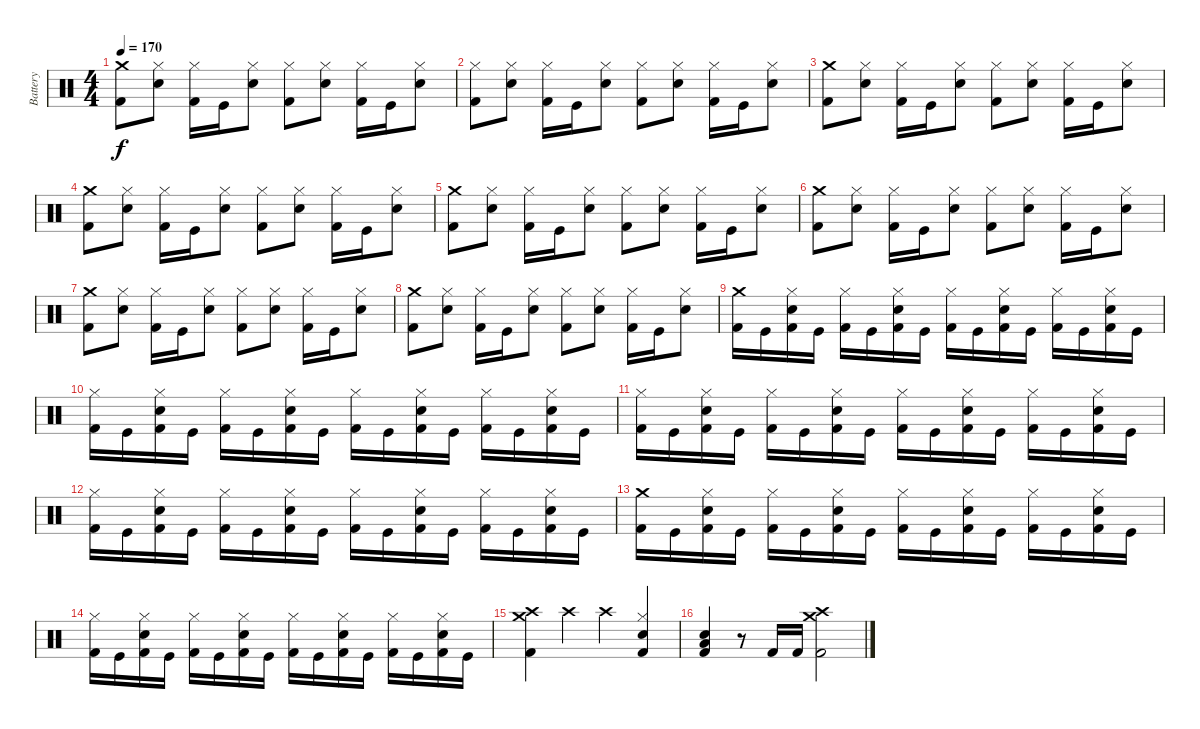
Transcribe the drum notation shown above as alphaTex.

\track ("Battery" "Battery") {instrument percussion}
\staff {score}
\articulation defaults
\ts (4 4)
\tempo 170
\clef neutral
\ks c
("Crash medium (hit)" "Kick (hit) 2").8{dy f} ("Hi-Hat (closed)" "Snare (hit) 2").8 ("Hi-Hat (closed)" "Kick (hit) 2").16 "Kick (hit)".16 ("Hi-Hat (closed)" "Snare (hit) 2").8 ("Hi-Hat (closed)" "Kick (hit) 2").8 ("Hi-Hat (closed)" "Snare (hit) 2").8 ("Hi-Hat (closed)" "Kick (hit) 2").16 "Kick (hit)".16 ("Hi-Hat (closed)" "Snare (hit) 2").8 |
("Hi-Hat (closed)" "Kick (hit) 2").8 ("Hi-Hat (closed)" "Snare (hit) 2").8 ("Hi-Hat (closed)" "Kick (hit) 2").16 "Kick (hit)".16 ("Hi-Hat (closed)" "Snare (hit) 2").8 ("Hi-Hat (closed)" "Kick (hit) 2").8 ("Hi-Hat (closed)" "Snare (hit) 2").8 ("Hi-Hat (closed)" "Kick (hit) 2").16 "Kick (hit)".16 ("Hi-Hat (closed)" "Snare (hit) 2").8 |
("Crash medium (hit)" "Kick (hit) 2").8 ("Hi-Hat (closed)" "Snare (hit) 2").8 ("Hi-Hat (closed)" "Kick (hit) 2").16 "Kick (hit)".16 ("Hi-Hat (closed)" "Snare (hit) 2").8 ("Hi-Hat (closed)" "Kick (hit) 2").8 ("Hi-Hat (closed)" "Snare (hit) 2").8 ("Hi-Hat (closed)" "Kick (hit) 2").16 "Kick (hit)".16 ("Hi-Hat (closed)" "Snare (hit) 2").8 |
("Crash medium (hit)" "Kick (hit) 2").8 ("Hi-Hat (closed)" "Snare (hit) 2").8 ("Hi-Hat (closed)" "Kick (hit) 2").16 "Kick (hit)".16 ("Hi-Hat (closed)" "Snare (hit) 2").8 ("Hi-Hat (closed)" "Kick (hit) 2").8 ("Hi-Hat (closed)" "Snare (hit) 2").8 ("Hi-Hat (closed)" "Kick (hit) 2").16 "Kick (hit)".16 ("Hi-Hat (closed)" "Snare (hit) 2").8 |
("Crash medium (hit)" "Kick (hit) 2").8 ("Hi-Hat (closed)" "Snare (hit) 2").8 ("Hi-Hat (closed)" "Kick (hit) 2").16 "Kick (hit)".16 ("Hi-Hat (closed)" "Snare (hit) 2").8 ("Hi-Hat (closed)" "Kick (hit) 2").8 ("Hi-Hat (closed)" "Snare (hit) 2").8 ("Hi-Hat (closed)" "Kick (hit) 2").16 "Kick (hit)".16 ("Hi-Hat (closed)" "Snare (hit) 2").8 |
("Crash medium (hit)" "Kick (hit) 2").8 ("Hi-Hat (closed)" "Snare (hit) 2").8 ("Hi-Hat (closed)" "Kick (hit) 2").16 "Kick (hit)".16 ("Hi-Hat (closed)" "Snare (hit) 2").8 ("Hi-Hat (closed)" "Kick (hit) 2").8 ("Hi-Hat (closed)" "Snare (hit) 2").8 ("Hi-Hat (closed)" "Kick (hit) 2").16 "Kick (hit)".16 ("Hi-Hat (closed)" "Snare (hit) 2").8 |
("Crash medium (hit)" "Kick (hit) 2").8 ("Hi-Hat (closed)" "Snare (hit) 2").8 ("Hi-Hat (closed)" "Kick (hit) 2").16 "Kick (hit)".16 ("Hi-Hat (closed)" "Snare (hit) 2").8 ("Hi-Hat (closed)" "Kick (hit) 2").8 ("Hi-Hat (closed)" "Snare (hit) 2").8 ("Hi-Hat (closed)" "Kick (hit) 2").16 "Kick (hit)".16 ("Hi-Hat (closed)" "Snare (hit) 2").8 |
("Crash medium (hit)" "Kick (hit) 2").8 ("Hi-Hat (closed)" "Snare (hit) 2").8 ("Hi-Hat (closed)" "Kick (hit) 2").16 "Kick (hit)".16 ("Hi-Hat (closed)" "Snare (hit) 2").8 ("Hi-Hat (closed)" "Kick (hit) 2").8 ("Hi-Hat (closed)" "Snare (hit) 2").8 ("Hi-Hat (closed)" "Kick (hit) 2").16 "Kick (hit)".16 ("Hi-Hat (closed)" "Snare (hit) 2").8 |
("Crash medium (hit)" "Kick (hit) 2").16 "Kick (hit)".16 ("Hi-Hat (closed)" "Snare (hit) 2" "Kick (hit) 2").16 "Kick (hit)".16 ("Hi-Hat (closed)" "Kick (hit) 2").16 "Kick (hit)".16 ("Hi-Hat (closed)" "Snare (hit) 2" "Kick (hit) 2").16 "Kick (hit)".16 ("Hi-Hat (closed)" "Kick (hit) 2").16 "Kick (hit)".16 ("Hi-Hat (closed)" "Snare (hit) 2" "Kick (hit) 2").16 "Kick (hit)".16 ("Hi-Hat (closed)" "Kick (hit) 2").16 "Kick (hit)".16 ("Hi-Hat (closed)" "Snare (hit) 2" "Kick (hit) 2").16 "Kick (hit)".16 |
("Hi-Hat (closed)" "Kick (hit) 2").16 "Kick (hit)".16 ("Hi-Hat (closed)" "Snare (hit) 2" "Kick (hit) 2").16 "Kick (hit)".16 ("Hi-Hat (closed)" "Kick (hit) 2").16 "Kick (hit)".16 ("Hi-Hat (closed)" "Snare (hit) 2" "Kick (hit) 2").16 "Kick (hit)".16 ("Hi-Hat (closed)" "Kick (hit) 2").16 "Kick (hit)".16 ("Hi-Hat (closed)" "Snare (hit) 2" "Kick (hit) 2").16 "Kick (hit)".16 ("Hi-Hat (closed)" "Kick (hit) 2").16 "Kick (hit)".16 ("Hi-Hat (closed)" "Snare (hit) 2" "Kick (hit) 2").16 "Kick (hit)".16 |
("Hi-Hat (closed)" "Kick (hit) 2").16 "Kick (hit)".16 ("Hi-Hat (closed)" "Snare (hit) 2" "Kick (hit) 2").16 "Kick (hit)".16 ("Hi-Hat (closed)" "Kick (hit) 2").16 "Kick (hit)".16 ("Hi-Hat (closed)" "Snare (hit) 2" "Kick (hit) 2").16 "Kick (hit)".16 ("Hi-Hat (closed)" "Kick (hit) 2").16 "Kick (hit)".16 ("Hi-Hat (closed)" "Snare (hit) 2" "Kick (hit) 2").16 "Kick (hit)".16 ("Hi-Hat (closed)" "Kick (hit) 2").16 "Kick (hit)".16 ("Hi-Hat (closed)" "Snare (hit) 2" "Kick (hit) 2").16 "Kick (hit)".16 |
("Hi-Hat (closed)" "Kick (hit) 2").16 "Kick (hit)".16 ("Hi-Hat (closed)" "Snare (hit) 2" "Kick (hit) 2").16 "Kick (hit)".16 ("Hi-Hat (closed)" "Kick (hit) 2").16 "Kick (hit)".16 ("Hi-Hat (closed)" "Snare (hit) 2" "Kick (hit) 2").16 "Kick (hit)".16 ("Hi-Hat (closed)" "Kick (hit) 2").16 "Kick (hit)".16 ("Hi-Hat (closed)" "Snare (hit) 2" "Kick (hit) 2").16 "Kick (hit)".16 ("Hi-Hat (closed)" "Kick (hit) 2").16 "Kick (hit)".16 ("Hi-Hat (closed)" "Snare (hit) 2" "Kick (hit) 2").16 "Kick (hit)".16 |
("Crash medium (hit)" "Kick (hit) 2").16 "Kick (hit)".16 ("Hi-Hat (closed)" "Snare (hit) 2" "Kick (hit) 2").16 "Kick (hit)".16 ("Hi-Hat (closed)" "Kick (hit) 2").16 "Kick (hit)".16 ("Hi-Hat (closed)" "Snare (hit) 2" "Kick (hit) 2").16 "Kick (hit)".16 ("Hi-Hat (closed)" "Kick (hit) 2").16 "Kick (hit)".16 ("Hi-Hat (closed)" "Snare (hit) 2" "Kick (hit) 2").16 "Kick (hit)".16 ("Hi-Hat (closed)" "Kick (hit) 2").16 "Kick (hit)".16 ("Hi-Hat (closed)" "Snare (hit) 2" "Kick (hit) 2").16 "Kick (hit)".16 |
("Hi-Hat (closed)" "Kick (hit) 2").16 "Kick (hit)".16 ("Hi-Hat (closed)" "Snare (hit) 2" "Kick (hit) 2").16 "Kick (hit)".16 ("Hi-Hat (closed)" "Kick (hit) 2").16 "Kick (hit)".16 ("Hi-Hat (closed)" "Snare (hit) 2" "Kick (hit) 2").16 "Kick (hit)".16 ("Hi-Hat (closed)" "Kick (hit) 2").16 "Kick (hit)".16 ("Hi-Hat (closed)" "Snare (hit) 2" "Kick (hit) 2").16 "Kick (hit)".16 ("Hi-Hat (closed)" "Kick (hit) 2").16 "Kick (hit)".16 ("Hi-Hat (closed)" "Snare (hit) 2" "Kick (hit) 2").16 "Kick (hit)".16 |
("Crash high (hit)" "Crash medium (hit)" "Kick (hit) 2").4 "Crash high (hit)".4 "Crash high (hit)".4 ("Hi-Hat (closed)" "Snare (hit) 2" "Kick (hit) 2").4 |
("Low Floor Tom (hit)" "Snare (hit) 2" "Kick (hit) 2").4 r.8 "Kick (hit) 2".16 "Kick (hit) 2".16 ("Crash high (hit)" "Crash medium (hit)" "Kick (hit) 2").2
